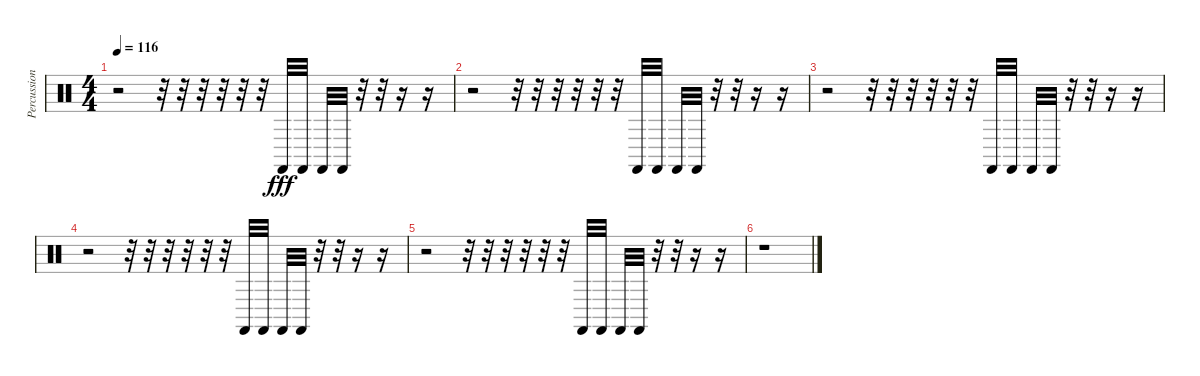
\track ("Percussion" "Percussion") {instrument percussion}
\staff {score}
\articulation defaults
\ts (4 4)
\tempo 116
\clef neutral
\ks c
r.2{dy fff} r.32 r.32 r.32 r.32 r.32 r.32 "Castanets (hit)".32 "Castanets (hit)".32 "Castanets (hit)".32 "Castanets (hit)".32 r.32 r.32 r.16 r.16 |
r.2 r.32 r.32 r.32 r.32 r.32 r.32 "Castanets (hit)".32 "Castanets (hit)".32 "Castanets (hit)".32 "Castanets (hit)".32 r.32 r.32 r.16 r.16 |
r.2 r.32 r.32 r.32 r.32 r.32 r.32 "Castanets (hit)".32 "Castanets (hit)".32 "Castanets (hit)".32 "Castanets (hit)".32 r.32 r.32 r.16 r.16 |
r.2 r.32 r.32 r.32 r.32 r.32 r.32 "Castanets (hit)".32 "Castanets (hit)".32 "Castanets (hit)".32 "Castanets (hit)".32 r.32 r.32 r.16 r.16 |
r.2 r.32 r.32 r.32 r.32 r.32 r.32 "Castanets (hit)".32 "Castanets (hit)".32 "Castanets (hit)".32 "Castanets (hit)".32 r.32 r.32 r.16 r.16 |
r.1
